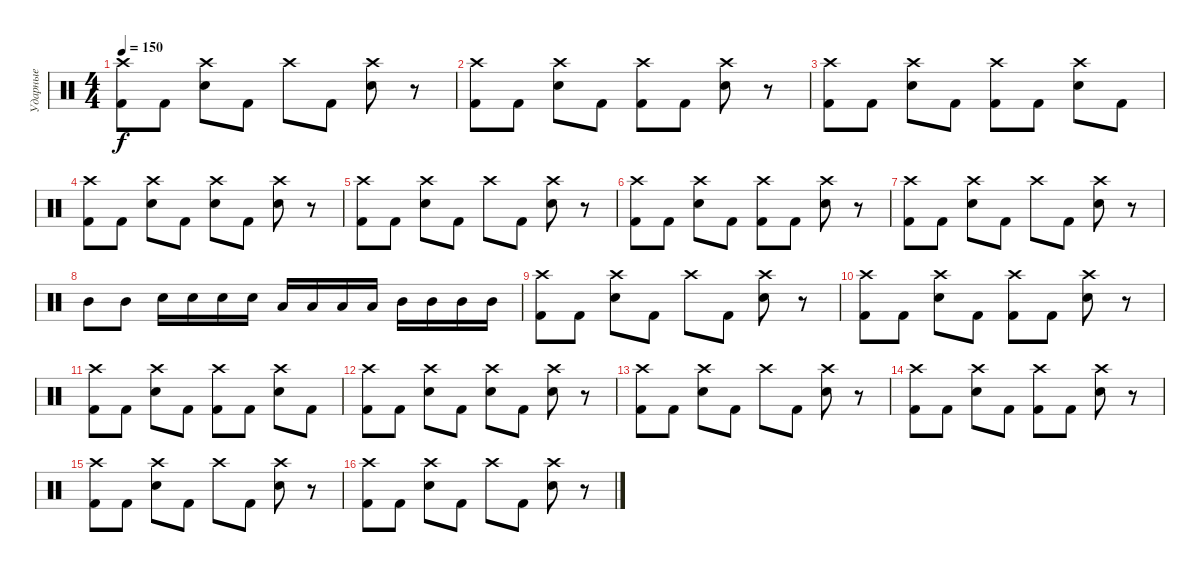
\track ("Ударные" "Ударные") {instrument percussion}
\staff {score}
\articulation defaults
\ts (4 4)
\tempo 150
\clef neutral
\ks c
("Crash high (hit)" "Kick (hit) 2").8{dy f} "Kick (hit) 2".8 ("Crash high (hit)" "Electric Snare (hit)").8 "Kick (hit) 2".8 "Crash high (hit)".8 "Kick (hit) 2".8 ("Crash high (hit)" "Electric Snare (hit)").8 r.8 |
("Crash high (hit)" "Kick (hit) 2").8 "Kick (hit) 2".8 ("Crash high (hit)" "Electric Snare (hit)").8 "Kick (hit) 2".8 ("Crash high (hit)" "Kick (hit) 2").8 "Kick (hit) 2".8 ("Crash high (hit)" "Electric Snare (hit)").8 r.8 |
("Crash high (hit)" "Kick (hit) 2").8 "Kick (hit) 2".8 ("Crash high (hit)" "Electric Snare (hit)").8 "Kick (hit) 2".8 ("Crash high (hit)" "Kick (hit) 2").8 "Kick (hit) 2".8 ("Crash high (hit)" "Electric Snare (hit)").8 "Kick (hit) 2".8 |
("Crash high (hit)" "Kick (hit) 2").8 "Kick (hit) 2".8 ("Crash high (hit)" "Electric Snare (hit)").8 "Kick (hit) 2".8 ("Crash high (hit)" "Electric Snare (hit)").8 "Kick (hit) 2".8 ("Crash high (hit)" "Electric Snare (hit)").8 r.8 |
("Crash high (hit)" "Kick (hit) 2").8 "Kick (hit) 2".8 ("Crash high (hit)" "Electric Snare (hit)").8 "Kick (hit) 2".8 "Crash high (hit)".8 "Kick (hit) 2".8 ("Crash high (hit)" "Electric Snare (hit)").8 r.8 |
("Crash high (hit)" "Kick (hit) 2").8 "Kick (hit) 2".8 ("Crash high (hit)" "Electric Snare (hit)").8 "Kick (hit) 2".8 ("Crash high (hit)" "Kick (hit) 2").8 "Kick (hit) 2".8 ("Crash high (hit)" "Electric Snare (hit)").8 r.8 |
("Crash high (hit)" "Kick (hit) 2").8 "Kick (hit) 2".8 ("Crash high (hit)" "Electric Snare (hit)").8 "Kick (hit) 2".8 "Crash high (hit)".8 "Kick (hit) 2".8 ("Crash high (hit)" "Electric Snare (hit)").8 r.8 |
"Mid Tom (hit)".8 "Mid Tom (hit)".8 "Electric Snare (hit)".16 "Electric Snare (hit)".16 "Electric Snare (hit)".16 "Electric Snare (hit)".16 "Low Tom (hit)".16 "Low Tom (hit)".16 "Low Tom (hit)".16 "Low Tom (hit)".16 "Mid Tom (hit)".16 "Mid Tom (hit)".16 "Mid Tom (hit)".16 "Mid Tom (hit)".16 |
("Crash high (hit)" "Kick (hit) 2").8 "Kick (hit) 2".8 ("Crash high (hit)" "Electric Snare (hit)").8 "Kick (hit) 2".8 "Crash high (hit)".8 "Kick (hit) 2".8 ("Crash high (hit)" "Electric Snare (hit)").8 r.8 |
("Crash high (hit)" "Kick (hit) 2").8 "Kick (hit) 2".8 ("Crash high (hit)" "Electric Snare (hit)").8 "Kick (hit) 2".8 ("Crash high (hit)" "Kick (hit) 2").8 "Kick (hit) 2".8 ("Crash high (hit)" "Electric Snare (hit)").8 r.8 |
("Crash high (hit)" "Kick (hit) 2").8 "Kick (hit) 2".8 ("Crash high (hit)" "Electric Snare (hit)").8 "Kick (hit) 2".8 ("Crash high (hit)" "Kick (hit) 2").8 "Kick (hit) 2".8 ("Crash high (hit)" "Electric Snare (hit)").8 "Kick (hit) 2".8 |
("Crash high (hit)" "Kick (hit) 2").8 "Kick (hit) 2".8 ("Crash high (hit)" "Electric Snare (hit)").8 "Kick (hit) 2".8 ("Crash high (hit)" "Electric Snare (hit)").8 "Kick (hit) 2".8 ("Crash high (hit)" "Electric Snare (hit)").8 r.8 |
("Crash high (hit)" "Kick (hit) 2").8 "Kick (hit) 2".8 ("Crash high (hit)" "Electric Snare (hit)").8 "Kick (hit) 2".8 "Crash high (hit)".8 "Kick (hit) 2".8 ("Crash high (hit)" "Electric Snare (hit)").8 r.8 |
("Crash high (hit)" "Kick (hit) 2").8 "Kick (hit) 2".8 ("Crash high (hit)" "Electric Snare (hit)").8 "Kick (hit) 2".8 ("Crash high (hit)" "Kick (hit) 2").8 "Kick (hit) 2".8 ("Crash high (hit)" "Electric Snare (hit)").8 r.8 |
("Crash high (hit)" "Kick (hit) 2").8 "Kick (hit) 2".8 ("Crash high (hit)" "Electric Snare (hit)").8 "Kick (hit) 2".8 "Crash high (hit)".8 "Kick (hit) 2".8 ("Crash high (hit)" "Electric Snare (hit)").8 r.8 |
("Crash high (hit)" "Kick (hit) 2").8 "Kick (hit) 2".8 ("Crash high (hit)" "Electric Snare (hit)").8 "Kick (hit) 2".8 "Crash high (hit)".8 "Kick (hit) 2".8 ("Crash high (hit)" "Electric Snare (hit)").8 r.8
